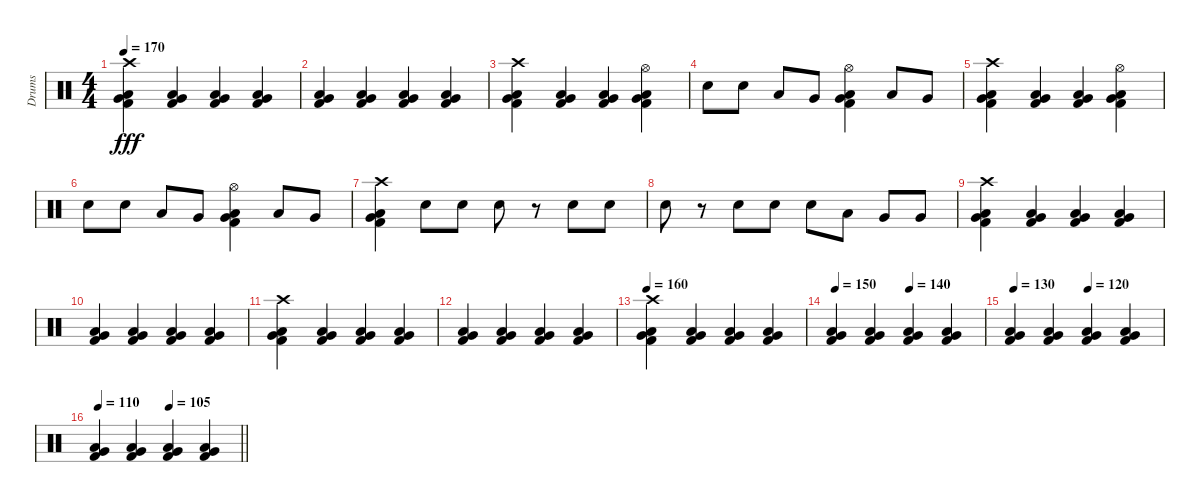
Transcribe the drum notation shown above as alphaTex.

\track ("Drums" "Drums") {instrument percussion}
\staff {score}
\articulation defaults
\ts (4 4)
\tempo 170
\clef neutral
\ks c
("Crash high (hit)" "Low Tom (hit)" "Very Low Tom (hit)" "Kick (hit) 2").4{dy fff} ("Low Tom (hit)" "Very Low Tom (hit)" "Kick (hit) 2").4 ("Low Tom (hit)" "Very Low Tom (hit)" "Kick (hit) 2").4 ("Low Tom (hit)" "Very Low Tom (hit)" "Kick (hit) 2").4 |
("Low Tom (hit)" "Very Low Tom (hit)" "Kick (hit) 2").4 ("Low Tom (hit)" "Very Low Tom (hit)" "Kick (hit) 2").4 ("Low Tom (hit)" "Very Low Tom (hit)" "Kick (hit) 2").4 ("Low Tom (hit)" "Very Low Tom (hit)" "Kick (hit) 2").4 |
("Crash high (hit)" "Low Tom (hit)" "Very Low Tom (hit)" "Kick (hit) 2").4 ("Low Tom (hit)" "Very Low Tom (hit)" "Kick (hit) 2").4 ("Low Tom (hit)" "Very Low Tom (hit)" "Kick (hit) 2").4 ("Hi-Hat (open)" "Low Tom (hit)" "Very Low Tom (hit)" "Kick (hit) 2").4 |
"Electric Snare (hit)".8 "Electric Snare (hit)".8 "Low Tom (hit)".8 "Very Low Tom (hit)".8 ("Hi-Hat (open)" "Low Tom (hit)" "Very Low Tom (hit)" "Kick (hit) 2").4 "Low Tom (hit)".8 "Very Low Tom (hit)".8 |
("Crash high (hit)" "Low Tom (hit)" "Very Low Tom (hit)" "Kick (hit) 2").4 ("Low Tom (hit)" "Very Low Tom (hit)" "Kick (hit) 2").4 ("Low Tom (hit)" "Very Low Tom (hit)" "Kick (hit) 2").4 ("Hi-Hat (open)" "Low Tom (hit)" "Very Low Tom (hit)" "Kick (hit) 2").4 |
"Electric Snare (hit)".8 "Electric Snare (hit)".8 "Low Tom (hit)".8 "Very Low Tom (hit)".8 ("Hi-Hat (open)" "Low Tom (hit)" "Very Low Tom (hit)" "Kick (hit) 2").4 "Low Tom (hit)".8 "Very Low Tom (hit)".8 |
("Crash high (hit)" "Low Tom (hit)" "Very Low Tom (hit)" "Kick (hit) 2").4 "Electric Snare (hit)".8 "Electric Snare (hit)".8 "Electric Snare (hit)".8 r.8 "Electric Snare (hit)".8 "Electric Snare (hit)".8 |
"Electric Snare (hit)".8 r.8 "Electric Snare (hit)".8 "Electric Snare (hit)".8 "Electric Snare (hit)".8 "Low Tom (hit)".8 "Very Low Tom (hit)".8 "Very Low Tom (hit)".8 |
("Crash high (hit)" "Low Tom (hit)" "Very Low Tom (hit)" "Kick (hit) 2").4 ("Low Tom (hit)" "Very Low Tom (hit)" "Kick (hit) 2").4 ("Low Tom (hit)" "Very Low Tom (hit)" "Kick (hit) 2").4 ("Low Tom (hit)" "Very Low Tom (hit)" "Kick (hit) 2").4 |
("Low Tom (hit)" "Very Low Tom (hit)" "Kick (hit) 2").4 ("Low Tom (hit)" "Very Low Tom (hit)" "Kick (hit) 2").4 ("Low Tom (hit)" "Very Low Tom (hit)" "Kick (hit) 2").4 ("Low Tom (hit)" "Very Low Tom (hit)" "Kick (hit) 2").4 |
("Crash high (hit)" "Low Tom (hit)" "Very Low Tom (hit)" "Kick (hit) 2").4 ("Low Tom (hit)" "Very Low Tom (hit)" "Kick (hit) 2").4 ("Low Tom (hit)" "Very Low Tom (hit)" "Kick (hit) 2").4 ("Low Tom (hit)" "Very Low Tom (hit)" "Kick (hit) 2").4 |
("Low Tom (hit)" "Very Low Tom (hit)" "Kick (hit) 2").4 ("Low Tom (hit)" "Very Low Tom (hit)" "Kick (hit) 2").4 ("Low Tom (hit)" "Very Low Tom (hit)" "Kick (hit) 2").4 ("Low Tom (hit)" "Very Low Tom (hit)" "Kick (hit) 2").4 |
\tempo 160
("Crash high (hit)" "Low Tom (hit)" "Very Low Tom (hit)" "Kick (hit) 2").4 ("Low Tom (hit)" "Very Low Tom (hit)" "Kick (hit) 2").4 ("Low Tom (hit)" "Very Low Tom (hit)" "Kick (hit) 2").4 ("Low Tom (hit)" "Very Low Tom (hit)" "Kick (hit) 2").4 |
\tempo 150
\tempo (140 0.5)
("Low Tom (hit)" "Very Low Tom (hit)" "Kick (hit) 2").4 ("Low Tom (hit)" "Very Low Tom (hit)" "Kick (hit) 2").4 ("Low Tom (hit)" "Very Low Tom (hit)" "Kick (hit) 2").4 ("Low Tom (hit)" "Very Low Tom (hit)" "Kick (hit) 2").4 |
\tempo 130
\tempo (120 0.5)
("Low Tom (hit)" "Very Low Tom (hit)" "Kick (hit) 2").4 ("Low Tom (hit)" "Very Low Tom (hit)" "Kick (hit) 2").4 ("Low Tom (hit)" "Very Low Tom (hit)" "Kick (hit) 2").4 ("Low Tom (hit)" "Very Low Tom (hit)" "Kick (hit) 2").4 |
\tempo 110
\tempo (105 0.5)
\barLineRight lightlight
("Low Tom (hit)" "Very Low Tom (hit)" "Kick (hit) 2").4 ("Low Tom (hit)" "Very Low Tom (hit)" "Kick (hit) 2").4 ("Low Tom (hit)" "Very Low Tom (hit)" "Kick (hit) 2").4 ("Low Tom (hit)" "Very Low Tom (hit)" "Kick (hit) 2").4
